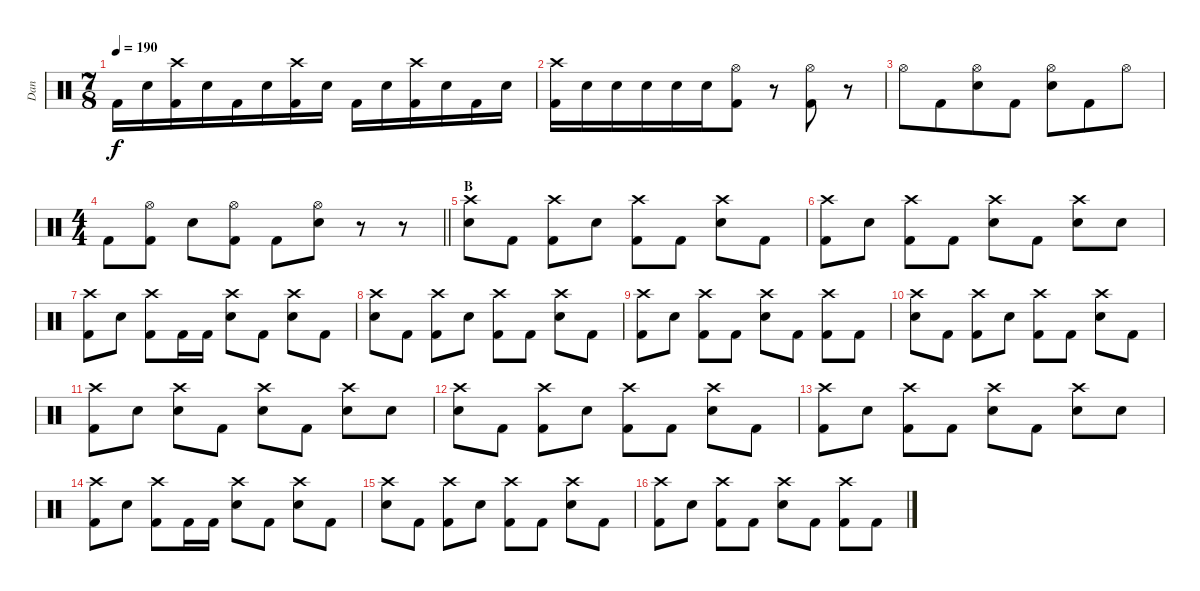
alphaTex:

\track ("Dan" "Dan") {instrument percussion}
\staff {score}
\articulation defaults
\ts (7 8)
\tempo 190
\clef neutral
\ks c "Kick (hit) 2".16{dy f} "Electric Snare (hit)".16
("Crash high (hit)" "Kick (hit) 2").16 "Electric Snare (hit)".16 "Kick (hit) 2".16 "Electric Snare (hit)".16 ("Crash high (hit)" "Kick (hit) 2").16 "Electric Snare (hit)".16 "Kick (hit) 2".16 "Electric Snare (hit)".16 ("Crash high (hit)" "Kick (hit) 2").16 "Electric Snare (hit)".16 "Kick (hit) 2".16 "Electric Snare (hit)".16 |
("Crash high (hit)" "Kick (hit) 2").16 "Electric Snare (hit)".16 "Electric Snare (hit)".16 "Electric Snare (hit)".16 "Electric Snare (hit)".16 "Electric Snare (hit)".16 ("Hi-Hat (open)" "Kick (hit) 2").8 r.8 ("Hi-Hat (open)" "Kick (hit) 2").8 r.8 |
"Hi-Hat (open)".8 "Kick (hit) 2".8 ("Hi-Hat (open)" "Electric Snare (hit)").8 "Kick (hit) 2".8 ("Hi-Hat (open)" "Electric Snare (hit)").8 "Kick (hit) 2".8 "Hi-Hat (open)".8 |
\ts (4 4)
\barLineRight lightlight "Kick (hit) 2".8
("Hi-Hat (open)" "Kick (hit) 2").8 "Electric Snare (hit)".8 ("Hi-Hat (open)" "Kick (hit) 2").8 "Kick (hit) 2".8 ("Hi-Hat (open)" "Electric Snare (hit)").8 r.8 r.8 |
\section ("" "B")
("Crash high (hit)" "Electric Snare (hit)").8 "Kick (hit) 2".8 ("Crash high (hit)" "Kick (hit) 2").8 "Electric Snare (hit)".8 ("Crash high (hit)" "Kick (hit) 2").8 "Kick (hit) 2".8 ("Crash high (hit)" "Electric Snare (hit)").8 "Kick (hit) 2".8 |
("Crash high (hit)" "Kick (hit) 2").8 "Electric Snare (hit)".8 ("Crash high (hit)" "Kick (hit) 2").8 "Kick (hit) 2".8 ("Crash high (hit)" "Electric Snare (hit)").8 "Kick (hit) 2".8 ("Crash high (hit)" "Electric Snare (hit)").8 "Electric Snare (hit)".8 |
("Crash high (hit)" "Kick (hit) 2").8 "Electric Snare (hit)".8 ("Crash high (hit)" "Kick (hit) 2").8 "Kick (hit) 2".16 "Kick (hit) 2".16 ("Crash high (hit)" "Electric Snare (hit)").8 "Kick (hit) 2".8 ("Crash high (hit)" "Electric Snare (hit)").8 "Kick (hit) 2".8 |
("Crash high (hit)" "Electric Snare (hit)").8 "Kick (hit) 2".8 ("Crash high (hit)" "Kick (hit) 2").8 "Electric Snare (hit)".8 ("Crash high (hit)" "Kick (hit) 2").8 "Kick (hit) 2".8 ("Crash high (hit)" "Electric Snare (hit)").8 "Kick (hit) 2".8 |
("Crash high (hit)" "Kick (hit) 2").8 "Electric Snare (hit)".8 ("Crash high (hit)" "Kick (hit) 2").8 "Kick (hit) 2".8 ("Crash high (hit)" "Electric Snare (hit)").8 "Kick (hit) 2".8 ("Crash high (hit)" "Kick (hit) 2").8 "Kick (hit) 2".8 |
("Crash high (hit)" "Electric Snare (hit)").8 "Kick (hit) 2".8 ("Crash high (hit)" "Kick (hit) 2").8 "Electric Snare (hit)".8 ("Crash high (hit)" "Kick (hit) 2").8 "Kick (hit) 2".8 ("Crash high (hit)" "Electric Snare (hit)").8 "Kick (hit) 2".8 |
("Crash high (hit)" "Kick (hit) 2").8 "Electric Snare (hit)".8 ("Crash high (hit)" "Electric Snare (hit)").8 "Kick (hit) 2".8 ("Crash high (hit)" "Electric Snare (hit)").8 "Kick (hit) 2".8 ("Crash high (hit)" "Electric Snare (hit)").8 "Electric Snare (hit)".8 |
("Crash high (hit)" "Electric Snare (hit)").8 "Kick (hit) 2".8 ("Crash high (hit)" "Kick (hit) 2").8 "Electric Snare (hit)".8 ("Crash high (hit)" "Kick (hit) 2").8 "Kick (hit) 2".8 ("Crash high (hit)" "Electric Snare (hit)").8 "Kick (hit) 2".8 |
("Crash high (hit)" "Kick (hit) 2").8 "Electric Snare (hit)".8 ("Crash high (hit)" "Kick (hit) 2").8 "Kick (hit) 2".8 ("Crash high (hit)" "Electric Snare (hit)").8 "Kick (hit) 2".8 ("Crash high (hit)" "Electric Snare (hit)").8 "Electric Snare (hit)".8 |
("Crash high (hit)" "Kick (hit) 2").8 "Electric Snare (hit)".8 ("Crash high (hit)" "Kick (hit) 2").8 "Kick (hit) 2".16 "Kick (hit) 2".16 ("Crash high (hit)" "Electric Snare (hit)").8 "Kick (hit) 2".8 ("Crash high (hit)" "Electric Snare (hit)").8 "Kick (hit) 2".8 |
("Crash high (hit)" "Electric Snare (hit)").8 "Kick (hit) 2".8 ("Crash high (hit)" "Kick (hit) 2").8 "Electric Snare (hit)".8 ("Crash high (hit)" "Kick (hit) 2").8 "Kick (hit) 2".8 ("Crash high (hit)" "Electric Snare (hit)").8 "Kick (hit) 2".8 |
("Crash high (hit)" "Kick (hit) 2").8 "Electric Snare (hit)".8 ("Crash high (hit)" "Kick (hit) 2").8 "Kick (hit) 2".8 ("Crash high (hit)" "Electric Snare (hit)").8 "Kick (hit) 2".8 ("Crash high (hit)" "Kick (hit) 2").8 "Kick (hit) 2".8
